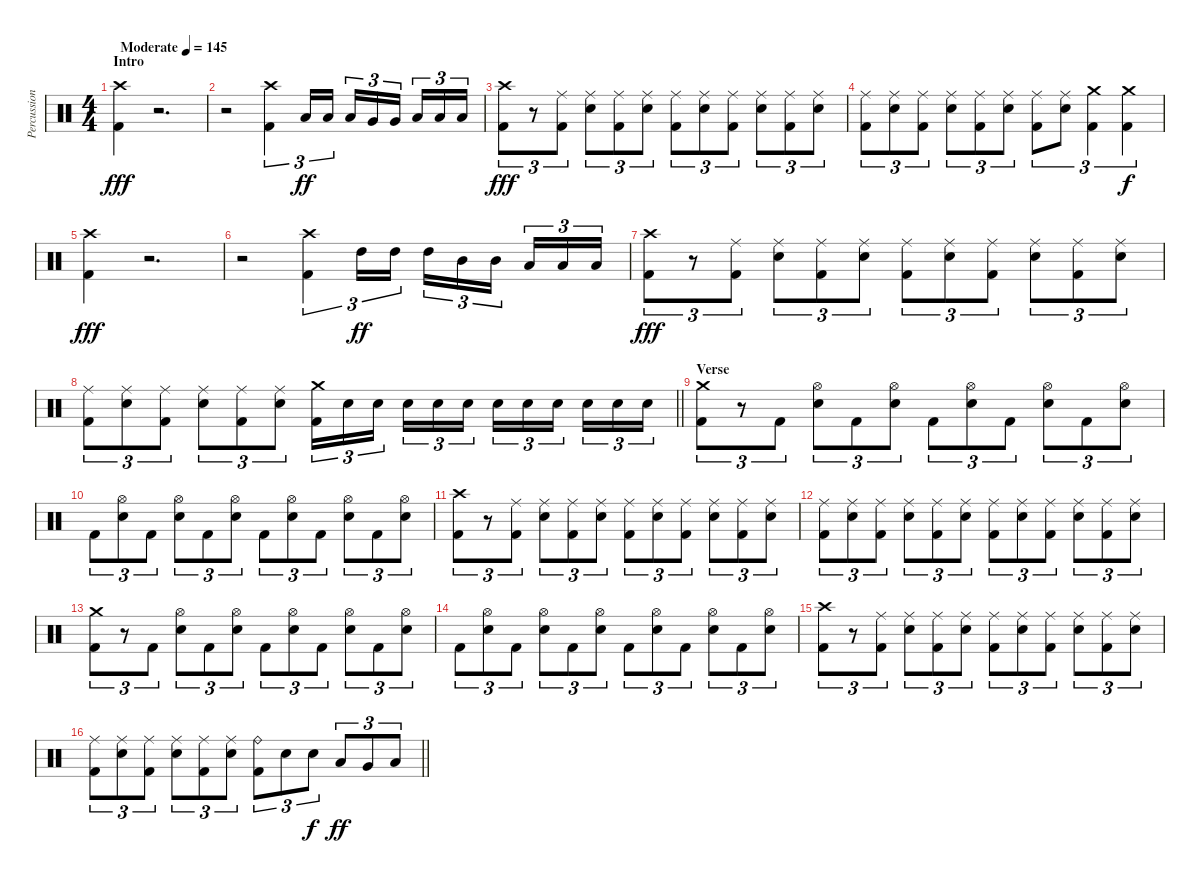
\track ("Percussion" "Percussion") {instrument percussion}
\staff {score}
\articulation defaults
\ts (4 4)
\section ("" "Intro")
\tempo (145 "Moderate")
\clef neutral
\ks c
("Crash high (hit)" "Kick (hit) 2").4{dy fff} r.2{d} |
r.2 ("Crash high (hit)" "Kick (hit) 2").4{tu (3 2)} "Low Tom (hit)".16{tu (3 2) dy ff} "Low Tom (hit)".16{tu (3 2)} "Low Tom (hit)".16{tu (3 2)} "Very Low Tom (hit)".16{tu (3 2)} "Very Low Tom (hit)".16{tu (3 2) beam splitsecondary} "Low Floor Tom (hit)".16{tu (3 2)} "Low Floor Tom (hit)".16{tu (3 2)} "Low Floor Tom (hit)".16{tu (3 2)} |
("Crash high (hit)" "Kick (hit) 2").8{tu (3 2) dy fff} r.8{tu (3 2)} ("Ride (middle)" "Kick (hit) 2").8{tu (3 2)} ("Ride (middle)" "Electric Snare (hit)").8{tu (3 2)} ("Ride (middle)" "Kick (hit) 2").8{tu (3 2)} ("Ride (middle)" "Electric Snare (hit)").8{tu (3 2)} ("Ride (middle)" "Kick (hit) 2").8{tu (3 2)} ("Ride (middle)" "Electric Snare (hit)").8{tu (3 2)} ("Ride (middle)" "Kick (hit) 2").8{tu (3 2)} ("Ride (middle)" "Electric Snare (hit)").8{tu (3 2)} ("Ride (middle)" "Kick (hit) 2").8{tu (3 2)} ("Ride (middle)" "Electric Snare (hit)").8{tu (3 2)} |
("Ride (middle)" "Kick (hit) 2").8{tu (3 2)} ("Ride (middle)" "Electric Snare (hit)").8{tu (3 2)} ("Ride (middle)" "Kick (hit) 2").8{tu (3 2)} ("Ride (middle)" "Electric Snare (hit)").8{tu (3 2)} ("Ride (middle)" "Kick (hit) 2").8{tu (3 2)} ("Ride (middle)" "Electric Snare (hit)").8{tu (3 2)} ("Ride (middle)" "Kick (hit) 2").8{tu (3 2)} ("Ride (middle)" "Electric Snare (hit)").8{tu (3 2)} ("Crash medium (hit)" "Kick (hit) 2").4{tu (3 2)} ("Crash medium (hit)" "Kick (hit) 2").4{tu (3 2) dy f} |
("Crash high (hit)" "Kick (hit) 2").4{dy fff} r.2{d} |
r.2 ("Crash high (hit)" "Kick (hit) 2").4{tu (3 2)} "High Tom (hit)".16{tu (3 2) dy ff} "High Tom (hit)".16{tu (3 2)} "High Tom (hit)".16{tu (3 2)} "Mid Tom (hit)".16{tu (3 2)} "Mid Tom (hit)".16{tu (3 2) beam splitsecondary} "Low Tom (hit)".16{tu (3 2)} "Low Tom (hit)".16{tu (3 2)} "Low Tom (hit)".16{tu (3 2)} |
("Crash high (hit)" "Kick (hit) 2").8{tu (3 2) dy fff} r.8{tu (3 2)} ("Ride (middle)" "Kick (hit) 2").8{tu (3 2)} ("Ride (middle)" "Electric Snare (hit)").8{tu (3 2)} ("Ride (middle)" "Kick (hit) 2").8{tu (3 2)} ("Ride (middle)" "Electric Snare (hit)").8{tu (3 2)} ("Ride (middle)" "Kick (hit) 2").8{tu (3 2)} ("Ride (middle)" "Electric Snare (hit)").8{tu (3 2)} ("Ride (middle)" "Kick (hit) 2").8{tu (3 2)} ("Ride (middle)" "Electric Snare (hit)").8{tu (3 2)} ("Ride (middle)" "Kick (hit) 2").8{tu (3 2)} ("Ride (middle)" "Electric Snare (hit)").8{tu (3 2)} |
\barLineRight lightlight
("Ride (middle)" "Kick (hit) 2").8{tu (3 2)} ("Ride (middle)" "Electric Snare (hit)").8{tu (3 2)} ("Ride (middle)" "Kick (hit) 2").8{tu (3 2)} ("Ride (middle)" "Electric Snare (hit)").8{tu (3 2)} ("Ride (middle)" "Kick (hit) 2").8{tu (3 2)} ("Ride (middle)" "Electric Snare (hit)").8{tu (3 2)} ("Crash medium (hit)" "Kick (hit) 2").16{tu (3 2)} "Electric Snare (hit)".16{tu (3 2)} "Electric Snare (hit)".16{tu (3 2) beam splitsecondary} "Electric Snare (hit)".16{tu (3 2)} "Electric Snare (hit)".16{tu (3 2)} "Electric Snare (hit)".16{tu (3 2)} "Electric Snare (hit)".16{tu (3 2)} "Electric Snare (hit)".16{tu (3 2)} "Electric Snare (hit)".16{tu (3 2) beam splitsecondary} "Electric Snare (hit)".16{tu (3 2)} "Electric Snare (hit)".16{tu (3 2)} "Electric Snare (hit)".16{tu (3 2)} |
\section ("" "Verse")
("Crash medium (hit)" "Kick (hit) 2").8{tu (3 2)} r.8{tu (3 2)} "Kick (hit) 2".8{tu (3 2)} ("Hi-Hat (open)" "Electric Snare (hit)").8{tu (3 2)} "Kick (hit) 2".8{tu (3 2)} ("Hi-Hat (open)" "Electric Snare (hit)").8{tu (3 2)} "Kick (hit) 2".8{tu (3 2)} ("Hi-Hat (open)" "Electric Snare (hit)").8{tu (3 2)} "Kick (hit) 2".8{tu (3 2)} ("Hi-Hat (open)" "Electric Snare (hit)").8{tu (3 2)} "Kick (hit) 2".8{tu (3 2)} ("Hi-Hat (open)" "Electric Snare (hit)").8{tu (3 2)} |
"Kick (hit) 2".8{tu (3 2)} ("Hi-Hat (open)" "Electric Snare (hit)").8{tu (3 2)} "Kick (hit) 2".8{tu (3 2)} ("Hi-Hat (open)" "Electric Snare (hit)").8{tu (3 2)} "Kick (hit) 2".8{tu (3 2)} ("Hi-Hat (open)" "Electric Snare (hit)").8{tu (3 2)} "Kick (hit) 2".8{tu (3 2)} ("Hi-Hat (open)" "Electric Snare (hit)").8{tu (3 2)} "Kick (hit) 2".8{tu (3 2)} ("Hi-Hat (open)" "Electric Snare (hit)").8{tu (3 2)} "Kick (hit) 2".8{tu (3 2)} ("Hi-Hat (open)" "Electric Snare (hit)").8{tu (3 2)} |
("Crash high (hit)" "Kick (hit) 2").8{tu (3 2)} r.8{tu (3 2)} ("Ride (middle)" "Kick (hit) 2").8{tu (3 2)} ("Ride (middle)" "Electric Snare (hit)").8{tu (3 2)} ("Ride (middle)" "Kick (hit) 2").8{tu (3 2)} ("Ride (middle)" "Electric Snare (hit)").8{tu (3 2)} ("Ride (middle)" "Kick (hit) 2").8{tu (3 2)} ("Ride (middle)" "Electric Snare (hit)").8{tu (3 2)} ("Ride (middle)" "Kick (hit) 2").8{tu (3 2)} ("Ride (middle)" "Electric Snare (hit)").8{tu (3 2)} ("Ride (middle)" "Kick (hit) 2").8{tu (3 2)} ("Ride (middle)" "Electric Snare (hit)").8{tu (3 2)} |
("Ride (middle)" "Kick (hit) 2").8{tu (3 2)} ("Ride (middle)" "Electric Snare (hit)").8{tu (3 2)} ("Ride (middle)" "Kick (hit) 2").8{tu (3 2)} ("Ride (middle)" "Electric Snare (hit)").8{tu (3 2)} ("Ride (middle)" "Kick (hit) 2").8{tu (3 2)} ("Ride (middle)" "Electric Snare (hit)").8{tu (3 2)} ("Ride (middle)" "Kick (hit) 2").8{tu (3 2)} ("Ride (middle)" "Electric Snare (hit)").8{tu (3 2)} ("Ride (middle)" "Kick (hit) 2").8{tu (3 2)} ("Ride (middle)" "Electric Snare (hit)").8{tu (3 2)} ("Ride (middle)" "Kick (hit) 2").8{tu (3 2)} ("Ride (middle)" "Electric Snare (hit)").8{tu (3 2)} |
("Crash medium (hit)" "Kick (hit) 2").8{tu (3 2)} r.8{tu (3 2)} "Kick (hit) 2".8{tu (3 2)} ("Hi-Hat (open)" "Electric Snare (hit)").8{tu (3 2)} "Kick (hit) 2".8{tu (3 2)} ("Hi-Hat (open)" "Electric Snare (hit)").8{tu (3 2)} "Kick (hit) 2".8{tu (3 2)} ("Hi-Hat (open)" "Electric Snare (hit)").8{tu (3 2)} "Kick (hit) 2".8{tu (3 2)} ("Hi-Hat (open)" "Electric Snare (hit)").8{tu (3 2)} "Kick (hit) 2".8{tu (3 2)} ("Hi-Hat (open)" "Electric Snare (hit)").8{tu (3 2)} |
"Kick (hit) 2".8{tu (3 2)} ("Hi-Hat (open)" "Electric Snare (hit)").8{tu (3 2)} "Kick (hit) 2".8{tu (3 2)} ("Hi-Hat (open)" "Electric Snare (hit)").8{tu (3 2)} "Kick (hit) 2".8{tu (3 2)} ("Hi-Hat (open)" "Electric Snare (hit)").8{tu (3 2)} "Kick (hit) 2".8{tu (3 2)} ("Hi-Hat (open)" "Electric Snare (hit)").8{tu (3 2)} "Kick (hit) 2".8{tu (3 2)} ("Hi-Hat (open)" "Electric Snare (hit)").8{tu (3 2)} "Kick (hit) 2".8{tu (3 2)} ("Hi-Hat (open)" "Electric Snare (hit)").8{tu (3 2)} |
("Crash high (hit)" "Kick (hit) 2").8{tu (3 2)} r.8{tu (3 2)} ("Ride (middle)" "Kick (hit) 2").8{tu (3 2)} ("Ride (middle)" "Electric Snare (hit)").8{tu (3 2)} ("Ride (middle)" "Kick (hit) 2").8{tu (3 2)} ("Ride (middle)" "Electric Snare (hit)").8{tu (3 2)} ("Ride (middle)" "Kick (hit) 2").8{tu (3 2)} ("Ride (middle)" "Electric Snare (hit)").8{tu (3 2)} ("Ride (middle)" "Kick (hit) 2").8{tu (3 2)} ("Ride (middle)" "Electric Snare (hit)").8{tu (3 2)} ("Ride (middle)" "Kick (hit) 2").8{tu (3 2)} ("Ride (middle)" "Electric Snare (hit)").8{tu (3 2)} |
\barLineRight lightlight
("Ride (middle)" "Kick (hit) 2").8{tu (3 2)} ("Ride (middle)" "Electric Snare (hit)").8{tu (3 2)} ("Ride (middle)" "Kick (hit) 2").8{tu (3 2)} ("Ride (middle)" "Electric Snare (hit)").8{tu (3 2)} ("Ride (middle)" "Kick (hit) 2").8{tu (3 2)} ("Ride (middle)" "Electric Snare (hit)").8{tu (3 2)} ("Ride (bell)" "Kick (hit) 2").8{tu (3 2)} "Electric Snare (hit)".8{tu (3 2)} "Electric Snare (hit)".8{tu (3 2) dy f} "Low Tom (hit)".8{tu (3 2) dy ff} "Very Low Tom (hit)".8{tu (3 2)} "Low Floor Tom (hit)".8{tu (3 2)}
